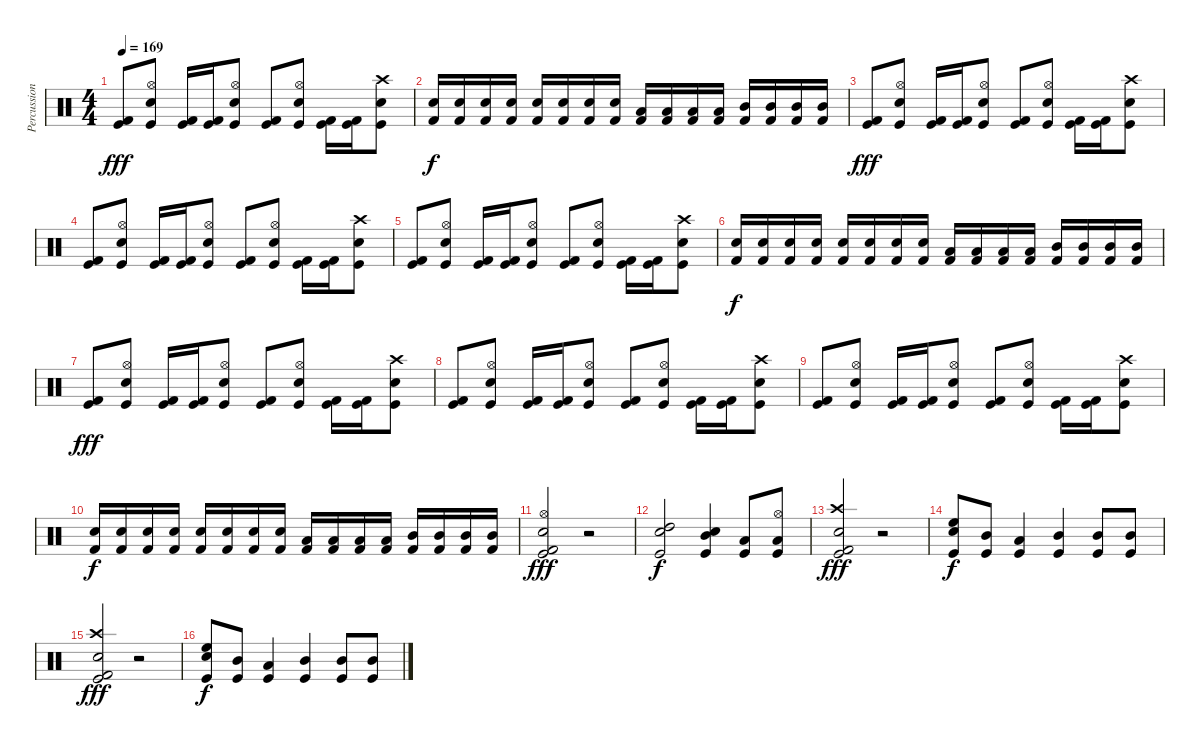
\track ("Percussion" "Percussion") {instrument percussion}
\staff {score}
\articulation defaults
\ts (4 4)
\tempo 169
\clef neutral
\ks c
("Kick (hit) 2" "Kick (hit)").8{dy fff} ("Hi-Hat (open)" "Electric Snare (hit)" "Kick (hit)").8 ("Kick (hit) 2" "Kick (hit)").16 ("Kick (hit) 2" "Kick (hit)").16 ("Hi-Hat (open)" "Electric Snare (hit)" "Kick (hit)").8 ("Kick (hit) 2" "Kick (hit)").8 ("Hi-Hat (open)" "Electric Snare (hit)" "Kick (hit)").8 ("Kick (hit) 2" "Kick (hit)").16 ("Kick (hit) 2" "Kick (hit)").16 ("Crash high (hit)" "Electric Snare (hit)" "Kick (hit)").8 |
("Electric Snare (hit)" "Kick (hit) 2").16{dy f} ("Electric Snare (hit)" "Kick (hit) 2").16 ("Electric Snare (hit)" "Kick (hit) 2").16 ("Electric Snare (hit)" "Kick (hit) 2").16 ("Snare (hit) 2" "Kick (hit) 2").16 ("Snare (hit) 2" "Kick (hit) 2").16 ("Snare (hit) 2" "Kick (hit) 2").16 ("Snare (hit) 2" "Kick (hit) 2").16 ("Low Tom (hit)" "Kick (hit) 2").16 ("Low Tom (hit)" "Kick (hit) 2").16 ("Low Tom (hit)" "Kick (hit) 2").16 ("Low Tom (hit)" "Kick (hit) 2").16 ("Mid Tom (hit)" "Kick (hit) 2").16 ("Mid Tom (hit)" "Kick (hit) 2").16 ("Mid Tom (hit)" "Kick (hit) 2").16 ("Mid Tom (hit)" "Kick (hit) 2").16 |
("Kick (hit) 2" "Kick (hit)").8{dy fff} ("Hi-Hat (open)" "Electric Snare (hit)" "Kick (hit)").8 ("Kick (hit) 2" "Kick (hit)").16 ("Kick (hit) 2" "Kick (hit)").16 ("Hi-Hat (open)" "Electric Snare (hit)" "Kick (hit)").8 ("Kick (hit) 2" "Kick (hit)").8 ("Hi-Hat (open)" "Electric Snare (hit)" "Kick (hit)").8 ("Kick (hit) 2" "Kick (hit)").16 ("Kick (hit) 2" "Kick (hit)").16 ("Crash high (hit)" "Electric Snare (hit)" "Kick (hit)").8 |
("Kick (hit) 2" "Kick (hit)").8 ("Hi-Hat (open)" "Electric Snare (hit)" "Kick (hit)").8 ("Kick (hit) 2" "Kick (hit)").16 ("Kick (hit) 2" "Kick (hit)").16 ("Hi-Hat (open)" "Electric Snare (hit)" "Kick (hit)").8 ("Kick (hit) 2" "Kick (hit)").8 ("Hi-Hat (open)" "Electric Snare (hit)" "Kick (hit)").8 ("Kick (hit) 2" "Kick (hit)").16 ("Kick (hit) 2" "Kick (hit)").16 ("Crash high (hit)" "Electric Snare (hit)" "Kick (hit)").8 |
("Kick (hit) 2" "Kick (hit)").8 ("Hi-Hat (open)" "Electric Snare (hit)" "Kick (hit)").8 ("Kick (hit) 2" "Kick (hit)").16 ("Kick (hit) 2" "Kick (hit)").16 ("Hi-Hat (open)" "Electric Snare (hit)" "Kick (hit)").8 ("Kick (hit) 2" "Kick (hit)").8 ("Hi-Hat (open)" "Electric Snare (hit)" "Kick (hit)").8 ("Kick (hit) 2" "Kick (hit)").16 ("Kick (hit) 2" "Kick (hit)").16 ("Crash high (hit)" "Electric Snare (hit)" "Kick (hit)").8 |
("Electric Snare (hit)" "Kick (hit) 2").16{dy f} ("Electric Snare (hit)" "Kick (hit) 2").16 ("Electric Snare (hit)" "Kick (hit) 2").16 ("Electric Snare (hit)" "Kick (hit) 2").16 ("Snare (hit) 2" "Kick (hit) 2").16 ("Snare (hit) 2" "Kick (hit) 2").16 ("Snare (hit) 2" "Kick (hit) 2").16 ("Snare (hit) 2" "Kick (hit) 2").16 ("Low Tom (hit)" "Kick (hit) 2").16 ("Low Tom (hit)" "Kick (hit) 2").16 ("Low Tom (hit)" "Kick (hit) 2").16 ("Low Tom (hit)" "Kick (hit) 2").16 ("Mid Tom (hit)" "Kick (hit) 2").16 ("Mid Tom (hit)" "Kick (hit) 2").16 ("Mid Tom (hit)" "Kick (hit) 2").16 ("Mid Tom (hit)" "Kick (hit) 2").16 |
("Kick (hit) 2" "Kick (hit)").8{dy fff} ("Hi-Hat (open)" "Electric Snare (hit)" "Kick (hit)").8 ("Kick (hit) 2" "Kick (hit)").16 ("Kick (hit) 2" "Kick (hit)").16 ("Hi-Hat (open)" "Electric Snare (hit)" "Kick (hit)").8 ("Kick (hit) 2" "Kick (hit)").8 ("Hi-Hat (open)" "Electric Snare (hit)" "Kick (hit)").8 ("Kick (hit) 2" "Kick (hit)").16 ("Kick (hit) 2" "Kick (hit)").16 ("Crash high (hit)" "Electric Snare (hit)" "Kick (hit)").8 |
("Kick (hit) 2" "Kick (hit)").8 ("Hi-Hat (open)" "Electric Snare (hit)" "Kick (hit)").8 ("Kick (hit) 2" "Kick (hit)").16 ("Kick (hit) 2" "Kick (hit)").16 ("Hi-Hat (open)" "Electric Snare (hit)" "Kick (hit)").8 ("Kick (hit) 2" "Kick (hit)").8 ("Hi-Hat (open)" "Electric Snare (hit)" "Kick (hit)").8 ("Kick (hit) 2" "Kick (hit)").16 ("Kick (hit) 2" "Kick (hit)").16 ("Crash high (hit)" "Electric Snare (hit)" "Kick (hit)").8 |
("Kick (hit) 2" "Kick (hit)").8 ("Hi-Hat (open)" "Electric Snare (hit)" "Kick (hit)").8 ("Kick (hit) 2" "Kick (hit)").16 ("Kick (hit) 2" "Kick (hit)").16 ("Hi-Hat (open)" "Electric Snare (hit)" "Kick (hit)").8 ("Kick (hit) 2" "Kick (hit)").8 ("Hi-Hat (open)" "Electric Snare (hit)" "Kick (hit)").8 ("Kick (hit) 2" "Kick (hit)").16 ("Kick (hit) 2" "Kick (hit)").16 ("Crash high (hit)" "Electric Snare (hit)" "Kick (hit)").8 |
("Electric Snare (hit)" "Kick (hit) 2").16{dy f} ("Electric Snare (hit)" "Kick (hit) 2").16 ("Electric Snare (hit)" "Kick (hit) 2").16 ("Electric Snare (hit)" "Kick (hit) 2").16 ("Snare (hit) 2" "Kick (hit) 2").16 ("Snare (hit) 2" "Kick (hit) 2").16 ("Snare (hit) 2" "Kick (hit) 2").16 ("Snare (hit) 2" "Kick (hit) 2").16 ("Low Tom (hit)" "Kick (hit) 2").16 ("Low Tom (hit)" "Kick (hit) 2").16 ("Low Tom (hit)" "Kick (hit) 2").16 ("Low Tom (hit)" "Kick (hit) 2").16 ("Mid Tom (hit)" "Kick (hit) 2").16 ("Mid Tom (hit)" "Kick (hit) 2").16 ("Mid Tom (hit)" "Kick (hit) 2").16 ("Mid Tom (hit)" "Kick (hit) 2").16 |
("Hi-Hat (open)" "Snare (hit) 2" "Kick (hit) 2" "Kick (hit)").2{dy fff} r.2 |
("High Tom (hit)" "Snare (hit) 2" "Kick (hit)").2{dy f} ("Mid Tom (hit)" "Electric Snare (hit)" "Kick (hit)").4 ("Low Tom (hit)" "Kick (hit)").8 ("Hi-Hat (open)" "Low Tom (hit)" "Kick (hit)").8 |
("Crash high (hit)" "Snare (hit) 2" "Kick (hit) 2" "Kick (hit)").2{dy fff} r.2 |
("High Floor Tom (hit)" "Snare (hit) 2" "Kick (hit)").8{dy f} ("Mid Tom (hit)" "Kick (hit)").8 ("Low Tom (hit)" "Kick (hit)").4 ("Mid Tom (hit)" "Kick (hit)").4 ("Mid Tom (hit)" "Kick (hit)").8 ("Mid Tom (hit)" "Kick (hit)").8 |
("Crash high (hit)" "Snare (hit) 2" "Kick (hit) 2" "Kick (hit)").2{dy fff} r.2 |
("High Floor Tom (hit)" "Snare (hit) 2" "Kick (hit)").8{dy f} ("Mid Tom (hit)" "Kick (hit)").8 ("Low Tom (hit)" "Kick (hit)").4 ("Mid Tom (hit)" "Kick (hit)").4 ("Mid Tom (hit)" "Kick (hit)").8 ("Mid Tom (hit)" "Kick (hit)").8
